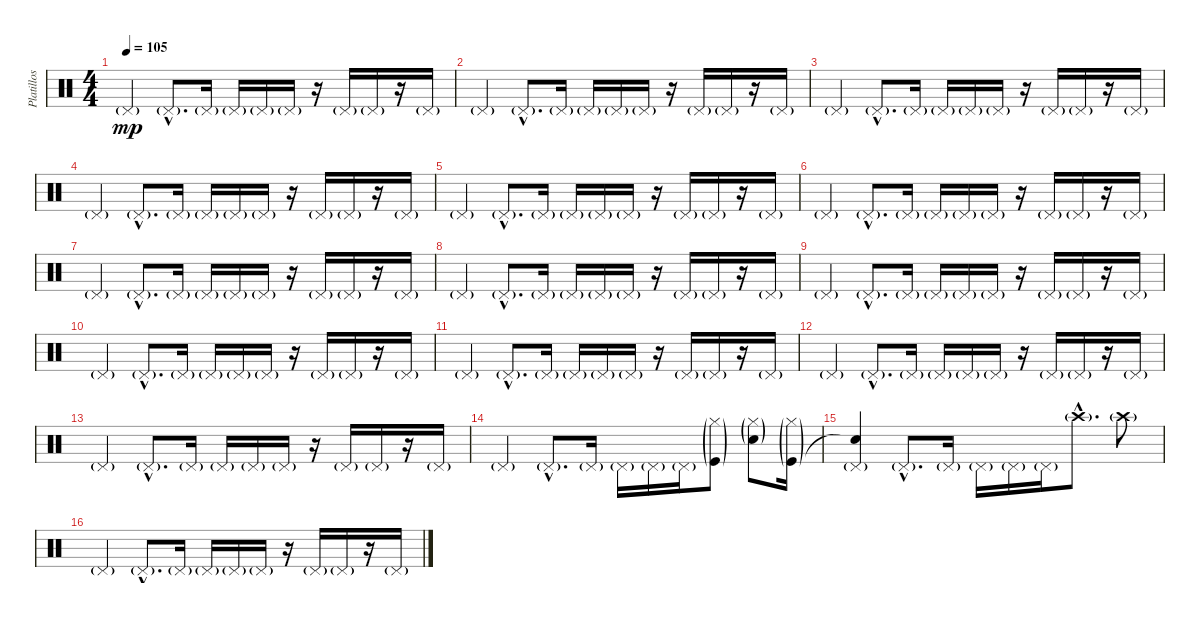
\track ("Platillos" "Platillos") {instrument percussion}
\staff {score}
\articulation defaults
\ts (4 4)
\tempo 105
\clef neutral
\ks c "Pedal Hi-Hat (hit)"{g}.4{dy mp} "Pedal Hi-Hat (hit)"{g hac}.8{d} "Pedal Hi-Hat (hit)"{g}.16 "Pedal Hi-Hat (hit)"{g}.16 "Pedal Hi-Hat (hit)"{g}.16 "Pedal Hi-Hat (hit)"{g}.16
r.16 "Pedal Hi-Hat (hit)"{g}.16 "Pedal Hi-Hat (hit)"{g}.16 r.16 "Pedal Hi-Hat (hit)"{g}.16 |
"Pedal Hi-Hat (hit)"{g}.4 "Pedal Hi-Hat (hit)"{g hac}.8{d} "Pedal Hi-Hat (hit)"{g}.16 "Pedal Hi-Hat (hit)"{g}.16 "Pedal Hi-Hat (hit)"{g}.16 "Pedal Hi-Hat (hit)"{g}.16 r.16 "Pedal Hi-Hat (hit)"{g}.16 "Pedal Hi-Hat (hit)"{g}.16 r.16 "Pedal Hi-Hat (hit)"{g}.16 |
"Pedal Hi-Hat (hit)"{g}.4 "Pedal Hi-Hat (hit)"{g hac}.8{d} "Pedal Hi-Hat (hit)"{g}.16 "Pedal Hi-Hat (hit)"{g}.16 "Pedal Hi-Hat (hit)"{g}.16 "Pedal Hi-Hat (hit)"{g}.16 r.16 "Pedal Hi-Hat (hit)"{g}.16 "Pedal Hi-Hat (hit)"{g}.16 r.16 "Pedal Hi-Hat (hit)"{g}.16 |
"Pedal Hi-Hat (hit)"{g}.4 "Pedal Hi-Hat (hit)"{g hac}.8{d} "Pedal Hi-Hat (hit)"{g}.16 "Pedal Hi-Hat (hit)"{g}.16 "Pedal Hi-Hat (hit)"{g}.16 "Pedal Hi-Hat (hit)"{g}.16 r.16 "Pedal Hi-Hat (hit)"{g}.16 "Pedal Hi-Hat (hit)"{g}.16 r.16 "Pedal Hi-Hat (hit)"{g}.16 |
"Pedal Hi-Hat (hit)"{g}.4 "Pedal Hi-Hat (hit)"{g hac}.8{d} "Pedal Hi-Hat (hit)"{g}.16 "Pedal Hi-Hat (hit)"{g}.16 "Pedal Hi-Hat (hit)"{g}.16 "Pedal Hi-Hat (hit)"{g}.16 r.16 "Pedal Hi-Hat (hit)"{g}.16 "Pedal Hi-Hat (hit)"{g}.16 r.16 "Pedal Hi-Hat (hit)"{g}.16 |
"Pedal Hi-Hat (hit)"{g}.4 "Pedal Hi-Hat (hit)"{g hac}.8{d} "Pedal Hi-Hat (hit)"{g}.16 "Pedal Hi-Hat (hit)"{g}.16 "Pedal Hi-Hat (hit)"{g}.16 "Pedal Hi-Hat (hit)"{g}.16 r.16 "Pedal Hi-Hat (hit)"{g}.16 "Pedal Hi-Hat (hit)"{g}.16 r.16 "Pedal Hi-Hat (hit)"{g}.16 |
"Pedal Hi-Hat (hit)"{g}.4 "Pedal Hi-Hat (hit)"{g hac}.8{d} "Pedal Hi-Hat (hit)"{g}.16 "Pedal Hi-Hat (hit)"{g}.16 "Pedal Hi-Hat (hit)"{g}.16 "Pedal Hi-Hat (hit)"{g}.16 r.16 "Pedal Hi-Hat (hit)"{g}.16 "Pedal Hi-Hat (hit)"{g}.16 r.16 "Pedal Hi-Hat (hit)"{g}.16 |
"Pedal Hi-Hat (hit)"{g}.4 "Pedal Hi-Hat (hit)"{g hac}.8{d} "Pedal Hi-Hat (hit)"{g}.16 "Pedal Hi-Hat (hit)"{g}.16 "Pedal Hi-Hat (hit)"{g}.16 "Pedal Hi-Hat (hit)"{g}.16 r.16 "Pedal Hi-Hat (hit)"{g}.16 "Pedal Hi-Hat (hit)"{g}.16 r.16 "Pedal Hi-Hat (hit)"{g}.16 |
"Pedal Hi-Hat (hit)"{g}.4 "Pedal Hi-Hat (hit)"{g hac}.8{d} "Pedal Hi-Hat (hit)"{g}.16 "Pedal Hi-Hat (hit)"{g}.16 "Pedal Hi-Hat (hit)"{g}.16 "Pedal Hi-Hat (hit)"{g}.16 r.16 "Pedal Hi-Hat (hit)"{g}.16 "Pedal Hi-Hat (hit)"{g}.16 r.16 "Pedal Hi-Hat (hit)"{g}.16 |
"Pedal Hi-Hat (hit)"{g}.4 "Pedal Hi-Hat (hit)"{g hac}.8{d} "Pedal Hi-Hat (hit)"{g}.16 "Pedal Hi-Hat (hit)"{g}.16 "Pedal Hi-Hat (hit)"{g}.16 "Pedal Hi-Hat (hit)"{g}.16 r.16 "Pedal Hi-Hat (hit)"{g}.16 "Pedal Hi-Hat (hit)"{g}.16 r.16 "Pedal Hi-Hat (hit)"{g}.16 |
"Pedal Hi-Hat (hit)"{g}.4 "Pedal Hi-Hat (hit)"{g hac}.8{d} "Pedal Hi-Hat (hit)"{g}.16 "Pedal Hi-Hat (hit)"{g}.16 "Pedal Hi-Hat (hit)"{g}.16 "Pedal Hi-Hat (hit)"{g}.16 r.16 "Pedal Hi-Hat (hit)"{g}.16 "Pedal Hi-Hat (hit)"{g}.16 r.16 "Pedal Hi-Hat (hit)"{g}.16 |
"Pedal Hi-Hat (hit)"{g}.4 "Pedal Hi-Hat (hit)"{g hac}.8{d} "Pedal Hi-Hat (hit)"{g}.16 "Pedal Hi-Hat (hit)"{g}.16 "Pedal Hi-Hat (hit)"{g}.16 "Pedal Hi-Hat (hit)"{g}.16 r.16 "Pedal Hi-Hat (hit)"{g}.16 "Pedal Hi-Hat (hit)"{g}.16 r.16 "Pedal Hi-Hat (hit)"{g}.16 |
"Pedal Hi-Hat (hit)"{g}.4 "Pedal Hi-Hat (hit)"{g hac}.8{d} "Pedal Hi-Hat (hit)"{g}.16 "Pedal Hi-Hat (hit)"{g}.16 "Pedal Hi-Hat (hit)"{g}.16 "Pedal Hi-Hat (hit)"{g}.16 r.16 "Pedal Hi-Hat (hit)"{g}.16 "Pedal Hi-Hat (hit)"{g}.16 r.16 "Pedal Hi-Hat (hit)"{g}.16 |
"Pedal Hi-Hat (hit)"{g}.4 "Pedal Hi-Hat (hit)"{g hac}.8{d} "Pedal Hi-Hat (hit)"{g}.16 "Pedal Hi-Hat (hit)"{g}.16 "Pedal Hi-Hat (hit)"{g}.16 "Pedal Hi-Hat (hit)"{g}.16 ("Hi-Hat (closed)"{g} "Kick (hit)"{g}).8 ("Hi-Hat (closed)"{g} "Snare (hit) 2"{g}).8 ("Hi-Hat (closed)"{g} "Kick (hit)"{g}).16 |
("Pedal Hi-Hat (hit)"{g} "Snare (hit)"{t}).4 "Pedal Hi-Hat (hit)"{g hac}.8{d} "Pedal Hi-Hat (hit)"{g}.16 "Pedal Hi-Hat (hit)"{g}.16 "Pedal Hi-Hat (hit)"{g}.16 "Pedal Hi-Hat (hit)"{g}.16 "Crash high (hit)"{g hac}.8{d} "Crash high (hit)"{g}.8 |
"Pedal Hi-Hat (hit)"{g}.4 "Pedal Hi-Hat (hit)"{g hac}.8{d} "Pedal Hi-Hat (hit)"{g}.16 "Pedal Hi-Hat (hit)"{g}.16 "Pedal Hi-Hat (hit)"{g}.16 "Pedal Hi-Hat (hit)"{g}.16 r.16 "Pedal Hi-Hat (hit)"{g}.16 "Pedal Hi-Hat (hit)"{g}.16 r.16 "Pedal Hi-Hat (hit)"{g}.16
